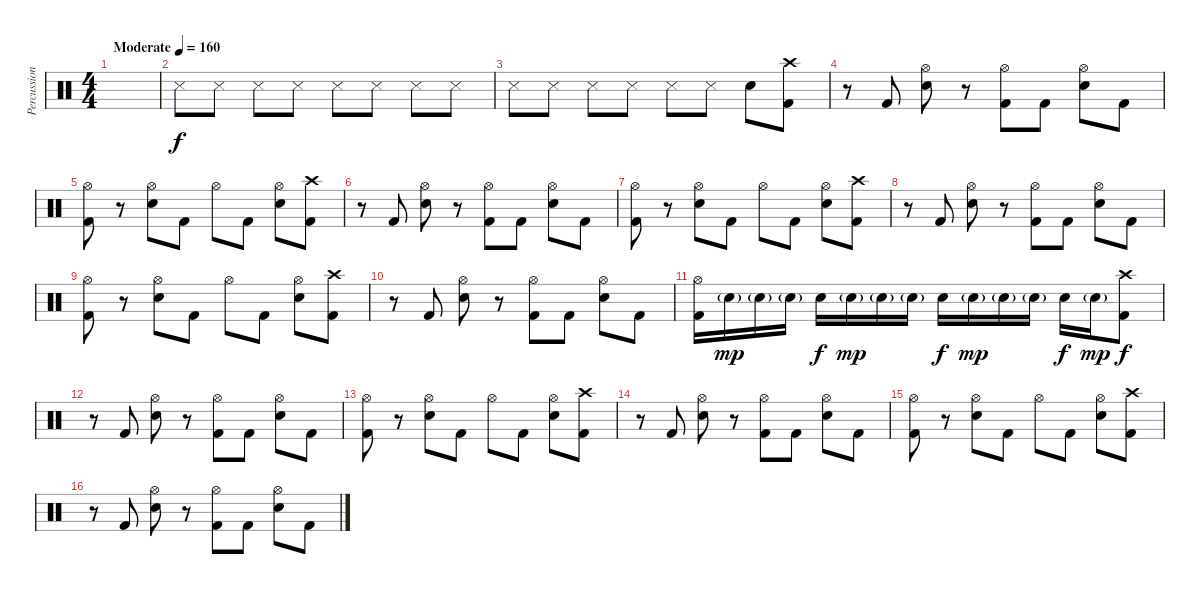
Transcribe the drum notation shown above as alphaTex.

\track ("Percussion" "Percussion") {instrument percussion}
\staff {score}
\articulation defaults
\ts (4 4)
\tempo (160 "Moderate")
\clef neutral
\ks c
|
"Metronome (hit)".8 "Metronome (hit)".8 "Metronome (hit)".8 "Metronome (hit)".8 "Metronome (hit)".8 "Metronome (hit)".8 "Metronome (hit)".8 "Metronome (hit)".8 |
"Metronome (hit)".8 "Metronome (hit)".8 "Metronome (hit)".8 "Metronome (hit)".8 "Metronome (hit)".8 "Metronome (hit)".8 "Electric Snare (hit)".8 ("Crash high (hit)" "Kick (hit) 2").8 |
r.8 "Kick (hit) 2".8 ("Hi-Hat (open)" "Electric Snare (hit)").8 r.8 ("Hi-Hat (open)" "Kick (hit) 2").8 "Kick (hit) 2".8 ("Hi-Hat (open)" "Electric Snare (hit)").8 "Kick (hit) 2".8 |
("Hi-Hat (open)" "Kick (hit) 2").8 r.8 ("Hi-Hat (open)" "Electric Snare (hit)").8 "Kick (hit) 2".8 "Hi-Hat (open)".8 "Kick (hit) 2".8 ("Hi-Hat (open)" "Electric Snare (hit)").8 ("Crash high (hit)" "Kick (hit) 2").8 |
r.8 "Kick (hit) 2".8 ("Hi-Hat (open)" "Electric Snare (hit)").8 r.8 ("Hi-Hat (open)" "Kick (hit) 2").8 "Kick (hit) 2".8 ("Hi-Hat (open)" "Electric Snare (hit)").8 "Kick (hit) 2".8 |
("Hi-Hat (open)" "Kick (hit) 2").8 r.8 ("Hi-Hat (open)" "Electric Snare (hit)").8 "Kick (hit) 2".8 "Hi-Hat (open)".8 "Kick (hit) 2".8 ("Hi-Hat (open)" "Electric Snare (hit)").8 ("Crash high (hit)" "Kick (hit) 2").8 |
r.8 "Kick (hit) 2".8 ("Hi-Hat (open)" "Electric Snare (hit)").8 r.8 ("Hi-Hat (open)" "Kick (hit) 2").8 "Kick (hit) 2".8 ("Hi-Hat (open)" "Electric Snare (hit)").8 "Kick (hit) 2".8 |
("Hi-Hat (open)" "Kick (hit) 2").8 r.8 ("Hi-Hat (open)" "Electric Snare (hit)").8 "Kick (hit) 2".8 "Hi-Hat (open)".8 "Kick (hit) 2".8 ("Hi-Hat (open)" "Electric Snare (hit)").8 ("Crash high (hit)" "Kick (hit) 2").8 |
r.8 "Kick (hit) 2".8 ("Hi-Hat (open)" "Electric Snare (hit)").8 r.8 ("Hi-Hat (open)" "Kick (hit) 2").8 "Kick (hit) 2".8 ("Hi-Hat (open)" "Electric Snare (hit)").8 "Kick (hit) 2".8 |
("Hi-Hat (open)" "Kick (hit) 2").16 "Electric Snare (hit)"{g}.16{dy mp} "Electric Snare (hit)"{g}.16 "Electric Snare (hit)"{g}.16 "Electric Snare (hit)".16{dy f} "Electric Snare (hit)"{g}.16{dy mp} "Electric Snare (hit)"{g}.16 "Electric Snare (hit)"{g}.16 "Electric Snare (hit)".16{dy f} "Electric Snare (hit)"{g}.16{dy mp} "Electric Snare (hit)"{g}.16 "Electric Snare (hit)"{g}.16 "Electric Snare (hit)".16{dy f} "Electric Snare (hit)"{g}.16{dy mp} ("Crash high (hit)" "Kick (hit) 2").8{dy f} |
r.8 "Kick (hit) 2".8 ("Hi-Hat (open)" "Electric Snare (hit)").8 r.8 ("Hi-Hat (open)" "Kick (hit) 2").8 "Kick (hit) 2".8 ("Hi-Hat (open)" "Electric Snare (hit)").8 "Kick (hit) 2".8 |
("Hi-Hat (open)" "Kick (hit) 2").8 r.8 ("Hi-Hat (open)" "Electric Snare (hit)").8 "Kick (hit) 2".8 "Hi-Hat (open)".8 "Kick (hit) 2".8 ("Hi-Hat (open)" "Electric Snare (hit)").8 ("Crash high (hit)" "Kick (hit) 2").8 |
r.8 "Kick (hit) 2".8 ("Hi-Hat (open)" "Electric Snare (hit)").8 r.8 ("Hi-Hat (open)" "Kick (hit) 2").8 "Kick (hit) 2".8 ("Hi-Hat (open)" "Electric Snare (hit)").8 "Kick (hit) 2".8 |
("Hi-Hat (open)" "Kick (hit) 2").8 r.8 ("Hi-Hat (open)" "Electric Snare (hit)").8 "Kick (hit) 2".8 "Hi-Hat (open)".8 "Kick (hit) 2".8 ("Hi-Hat (open)" "Electric Snare (hit)").8 ("Crash high (hit)" "Kick (hit) 2").8 |
r.8 "Kick (hit) 2".8 ("Hi-Hat (open)" "Electric Snare (hit)").8 r.8 ("Hi-Hat (open)" "Kick (hit) 2").8 "Kick (hit) 2".8 ("Hi-Hat (open)" "Electric Snare (hit)").8 "Kick (hit) 2".8
